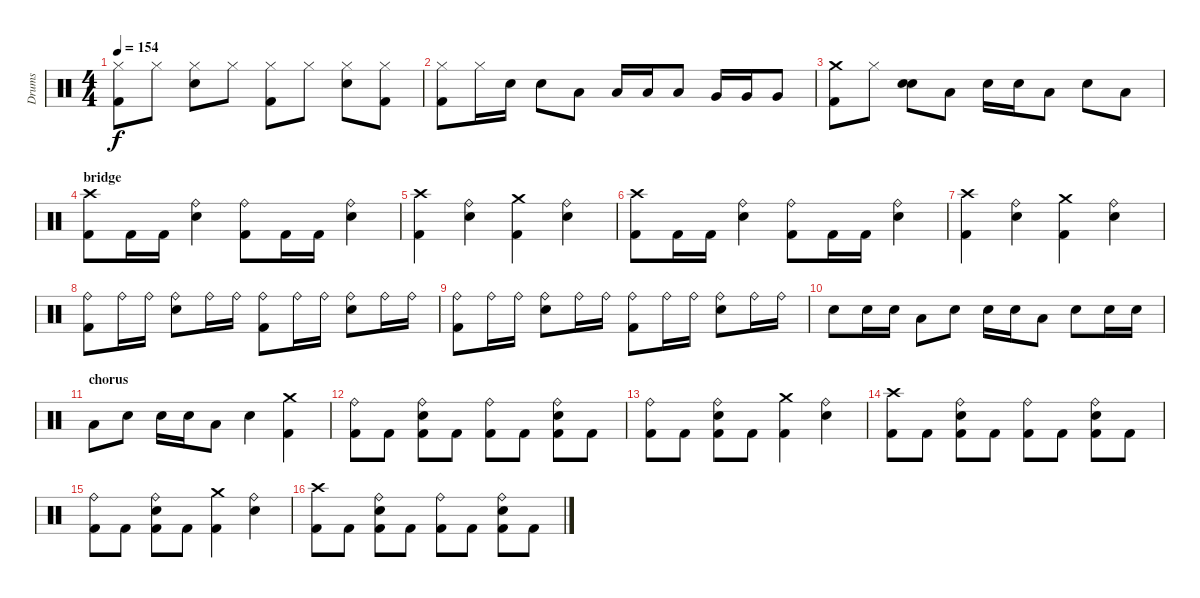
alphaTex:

\track ("Drums" "Drums") {instrument percussion}
\staff {score}
\articulation defaults
\ts (4 4)
\tempo 154
\clef neutral
\ks c
("Hi-Hat (closed)" "Kick (hit) 2").8{dy f} "Hi-Hat (closed)".8 ("Hi-Hat (closed)" "Electric Snare (hit)").8 "Hi-Hat (closed)".8 ("Hi-Hat (closed)" "Kick (hit) 2").8 "Hi-Hat (closed)".8 ("Hi-Hat (closed)" "Electric Snare (hit)").8 ("Hi-Hat (closed)" "Kick (hit) 2").8 |
("Hi-Hat (closed)" "Kick (hit) 2").8 "Hi-Hat (closed)".16 "Electric Snare (hit)".16 "Electric Snare (hit)".8 "Low Tom (hit)".8 "Low Tom (hit)".16 "Low Tom (hit)".16 "Low Tom (hit)".8 "Very Low Tom (hit)".16 "Very Low Tom (hit)".16 "Very Low Tom (hit)".8 |
("Crash medium (hit)" "Kick (hit) 2").8 "Hi-Hat (closed)".8 ("Electric Snare (hit)" "Electric Snare (hit)").8 "Low Tom (hit)".8 "Electric Snare (hit)".16 "Electric Snare (hit)".16 "Low Tom (hit)".8 "Electric Snare (hit)".8 "Low Tom (hit)".8 |
\section ("" "bridge")
("Crash high (hit)" "Kick (hit) 2").8 "Kick (hit) 2".16 "Kick (hit) 2".16 ("Ride (bell)" "Electric Snare (hit)").4 ("Ride (bell)" "Kick (hit) 2").8 "Kick (hit) 2".16 "Kick (hit) 2".16 ("Ride (bell)" "Electric Snare (hit)").4 |
("Crash high (hit)" "Kick (hit) 2").4 ("Ride (bell)" "Electric Snare (hit)").4 ("Crash medium (hit)" "Kick (hit) 2").4 ("Ride (bell)" "Electric Snare (hit)").4 |
("Crash high (hit)" "Kick (hit) 2").8 "Kick (hit) 2".16 "Kick (hit) 2".16 ("Ride (bell)" "Electric Snare (hit)").4 ("Ride (bell)" "Kick (hit) 2").8 "Kick (hit) 2".16 "Kick (hit) 2".16 ("Ride (bell)" "Electric Snare (hit)").4 |
("Crash high (hit)" "Kick (hit) 2").4 ("Ride (bell)" "Electric Snare (hit)").4 ("Crash medium (hit)" "Kick (hit) 2").4 ("Ride (bell)" "Electric Snare (hit)").4 |
("Ride (bell)" "Kick (hit) 2").8 "Ride (bell)".16 "Ride (bell)".16 ("Ride (bell)" "Electric Snare (hit)").8 "Ride (bell)".16 "Ride (bell)".16 ("Ride (bell)" "Kick (hit) 2").8 "Ride (bell)".16 "Ride (bell)".16 ("Ride (bell)" "Electric Snare (hit)").8 "Ride (bell)".16 "Ride (bell)".16 |
("Ride (bell)" "Kick (hit) 2").8 "Ride (bell)".16 "Ride (bell)".16 ("Ride (bell)" "Electric Snare (hit)").8 "Ride (bell)".16 "Ride (bell)".16 ("Ride (bell)" "Kick (hit) 2").8 "Ride (bell)".16 "Ride (bell)".16 ("Ride (bell)" "Electric Snare (hit)").8 "Ride (bell)".16 "Ride (bell)".16 |
"Electric Snare (hit)".8 "Electric Snare (hit)".16 "Electric Snare (hit)".16 "Low Tom (hit)".8 "Electric Snare (hit)".8 "Electric Snare (hit)".16 "Electric Snare (hit)".16 "Low Tom (hit)".8 "Electric Snare (hit)".8 "Electric Snare (hit)".16 "Electric Snare (hit)".16 |
\section ("" "chorus")
"Low Tom (hit)".8 "Electric Snare (hit)".8 "Electric Snare (hit)".16 "Electric Snare (hit)".16 "Low Tom (hit)".8 "Electric Snare (hit)".4 ("Crash medium (hit)" "Kick (hit) 2").4 |
("Ride (bell)" "Kick (hit) 2").8 "Kick (hit) 2".8 ("Ride (bell)" "Electric Snare (hit)" "Kick (hit) 2").8 "Kick (hit) 2".8 ("Ride (bell)" "Kick (hit) 2").8 "Kick (hit) 2".8 ("Ride (bell)" "Electric Snare (hit)" "Kick (hit) 2").8 "Kick (hit) 2".8 |
("Ride (bell)" "Kick (hit) 2").8 "Kick (hit) 2".8 ("Ride (bell)" "Electric Snare (hit)" "Kick (hit) 2").8 "Kick (hit) 2".8 ("Crash medium (hit)" "Kick (hit) 2").4 ("Ride (bell)" "Electric Snare (hit)").4 |
("Crash high (hit)" "Kick (hit) 2").8 "Kick (hit) 2".8 ("Ride (bell)" "Electric Snare (hit)" "Kick (hit) 2").8 "Kick (hit) 2".8 ("Ride (bell)" "Kick (hit) 2").8 "Kick (hit) 2".8 ("Ride (bell)" "Electric Snare (hit)" "Kick (hit) 2").8 "Kick (hit) 2".8 |
("Ride (bell)" "Kick (hit) 2").8 "Kick (hit) 2".8 ("Ride (bell)" "Electric Snare (hit)" "Kick (hit) 2").8 "Kick (hit) 2".8 ("Crash medium (hit)" "Kick (hit) 2").4 ("Ride (bell)" "Electric Snare (hit)").4 |
("Crash high (hit)" "Kick (hit) 2").8 "Kick (hit) 2".8 ("Ride (bell)" "Electric Snare (hit)" "Kick (hit) 2").8 "Kick (hit) 2".8 ("Ride (bell)" "Kick (hit) 2").8 "Kick (hit) 2".8 ("Ride (bell)" "Electric Snare (hit)" "Kick (hit) 2").8 "Kick (hit) 2".8
